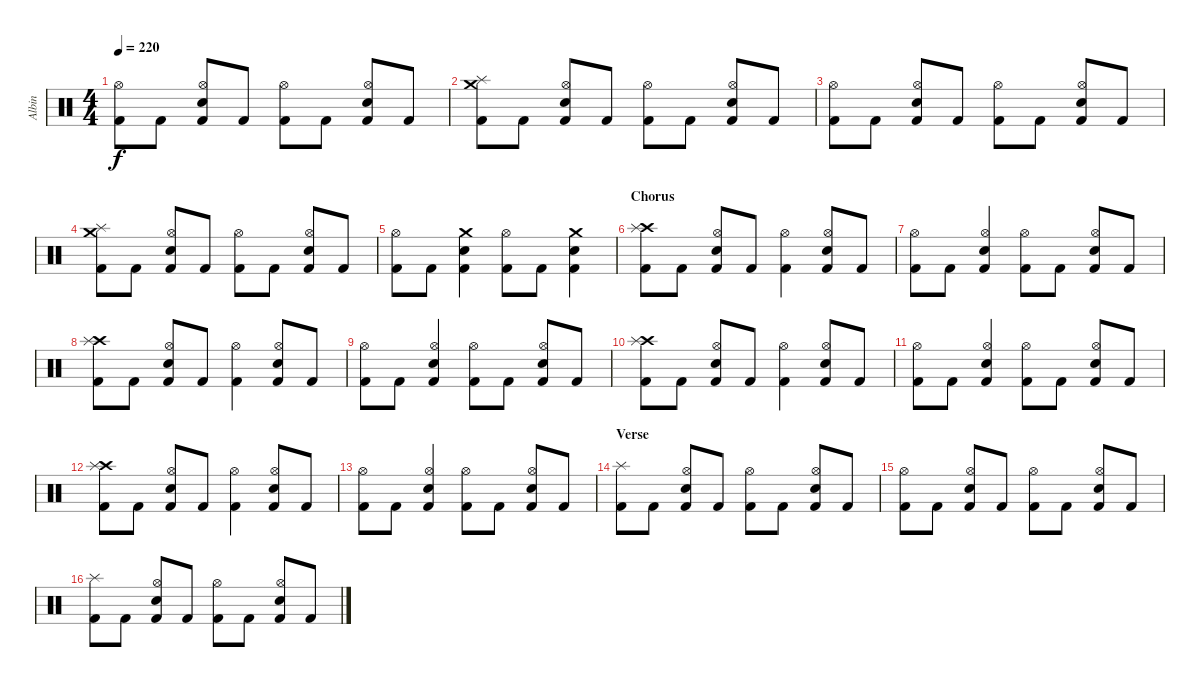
\track ("Albin" "Albin") {instrument percussion}
\staff {score}
\articulation defaults
\ts (4 4)
\tempo 220
\clef neutral
\ks c
("Kick (hit) 2" "Hi-Hat (open)").8{dy f} "Kick (hit) 2".8 ("Kick (hit) 2" "Electric Snare (hit)" "Hi-Hat (open)").8 "Kick (hit) 2".8 ("Kick (hit) 2" "Hi-Hat (open)").8 "Kick (hit) 2".8 ("Kick (hit) 2" "Electric Snare (hit)" "Hi-Hat (open)").8 "Kick (hit) 2".8 |
("Kick (hit) 2" "Splash (hit)" "Crash medium (hit)").8 "Kick (hit) 2".8 ("Kick (hit) 2" "Electric Snare (hit)" "Hi-Hat (open)").8 "Kick (hit) 2".8 ("Kick (hit) 2" "Hi-Hat (open)").8 "Kick (hit) 2".8 ("Kick (hit) 2" "Electric Snare (hit)" "Hi-Hat (open)").8 "Kick (hit) 2".8 |
("Kick (hit) 2" "Hi-Hat (open)").8 "Kick (hit) 2".8 ("Kick (hit) 2" "Electric Snare (hit)" "Hi-Hat (open)").8 "Kick (hit) 2".8 ("Kick (hit) 2" "Hi-Hat (open)").8 "Kick (hit) 2".8 ("Kick (hit) 2" "Electric Snare (hit)" "Hi-Hat (open)").8 "Kick (hit) 2".8 |
("Kick (hit) 2" "Splash (hit)" "Crash medium (hit)").8 "Kick (hit) 2".8 ("Kick (hit) 2" "Electric Snare (hit)" "Hi-Hat (open)").8 "Kick (hit) 2".8 ("Kick (hit) 2" "Hi-Hat (open)").8 "Kick (hit) 2".8 ("Kick (hit) 2" "Electric Snare (hit)" "Hi-Hat (open)").8 "Kick (hit) 2".8 |
("Kick (hit) 2" "Hi-Hat (open)").8 "Kick (hit) 2".8 ("Kick (hit) 2" "Electric Snare (hit)" "Crash medium (hit)").4 ("Kick (hit) 2" "Hi-Hat (open)").8 "Kick (hit) 2".8 ("Kick (hit) 2" "Electric Snare (hit)" "Crash medium (hit)").4 |
\section ("" "Chorus")
("Kick (hit) 2" "Crash high (hit)" "Splash (hit)").8 "Kick (hit) 2".8 ("Kick (hit) 2" "Electric Snare (hit)" "Hi-Hat (open)").8 "Kick (hit) 2".8 ("Kick (hit) 2" "Hi-Hat (open)").4 ("Kick (hit) 2" "Electric Snare (hit)" "Hi-Hat (open)").8 "Kick (hit) 2".8 |
("Kick (hit) 2" "Hi-Hat (open)").8 "Kick (hit) 2".8 ("Kick (hit) 2" "Electric Snare (hit)" "Hi-Hat (open)").4 ("Kick (hit) 2" "Hi-Hat (open)").8 "Kick (hit) 2".8 ("Kick (hit) 2" "Electric Snare (hit)" "Hi-Hat (open)").8 "Kick (hit) 2".8 |
("Kick (hit) 2" "Crash high (hit)" "Splash (hit)").8 "Kick (hit) 2".8 ("Kick (hit) 2" "Electric Snare (hit)" "Hi-Hat (open)").8 "Kick (hit) 2".8 ("Kick (hit) 2" "Hi-Hat (open)").4 ("Kick (hit) 2" "Electric Snare (hit)" "Hi-Hat (open)").8 "Kick (hit) 2".8 |
("Kick (hit) 2" "Hi-Hat (open)").8 "Kick (hit) 2".8 ("Kick (hit) 2" "Electric Snare (hit)" "Hi-Hat (open)").4 ("Kick (hit) 2" "Hi-Hat (open)").8 "Kick (hit) 2".8 ("Kick (hit) 2" "Electric Snare (hit)" "Hi-Hat (open)").8 "Kick (hit) 2".8 |
("Kick (hit) 2" "Crash high (hit)" "Splash (hit)").8 "Kick (hit) 2".8 ("Kick (hit) 2" "Electric Snare (hit)" "Hi-Hat (open)").8 "Kick (hit) 2".8 ("Kick (hit) 2" "Hi-Hat (open)").4 ("Kick (hit) 2" "Electric Snare (hit)" "Hi-Hat (open)").8 "Kick (hit) 2".8 |
("Kick (hit) 2" "Hi-Hat (open)").8 "Kick (hit) 2".8 ("Kick (hit) 2" "Electric Snare (hit)" "Hi-Hat (open)").4 ("Kick (hit) 2" "Hi-Hat (open)").8 "Kick (hit) 2".8 ("Kick (hit) 2" "Electric Snare (hit)" "Hi-Hat (open)").8 "Kick (hit) 2".8 |
("Kick (hit) 2" "Crash high (hit)" "Splash (hit)").8 "Kick (hit) 2".8 ("Kick (hit) 2" "Electric Snare (hit)" "Hi-Hat (open)").8 "Kick (hit) 2".8 ("Kick (hit) 2" "Hi-Hat (open)").4 ("Kick (hit) 2" "Electric Snare (hit)" "Hi-Hat (open)").8 "Kick (hit) 2".8 |
("Kick (hit) 2" "Hi-Hat (open)").8 "Kick (hit) 2".8 ("Kick (hit) 2" "Electric Snare (hit)" "Hi-Hat (open)").4 ("Kick (hit) 2" "Hi-Hat (open)").8 "Kick (hit) 2".8 ("Kick (hit) 2" "Electric Snare (hit)" "Hi-Hat (open)").8 "Kick (hit) 2".8 |
\section ("" "Verse")
("Kick (hit) 2" "Splash (hit)").8 "Kick (hit) 2".8 ("Kick (hit) 2" "Electric Snare (hit)" "Hi-Hat (open)").8 "Kick (hit) 2".8 ("Kick (hit) 2" "Hi-Hat (open)").8 "Kick (hit) 2".8 ("Kick (hit) 2" "Electric Snare (hit)" "Hi-Hat (open)").8 "Kick (hit) 2".8 |
("Kick (hit) 2" "Hi-Hat (open)").8 "Kick (hit) 2".8 ("Kick (hit) 2" "Electric Snare (hit)" "Hi-Hat (open)").8 "Kick (hit) 2".8 ("Kick (hit) 2" "Hi-Hat (open)").8 "Kick (hit) 2".8 ("Kick (hit) 2" "Electric Snare (hit)" "Hi-Hat (open)").8 "Kick (hit) 2".8 |
("Kick (hit) 2" "Splash (hit)").8 "Kick (hit) 2".8 ("Kick (hit) 2" "Electric Snare (hit)" "Hi-Hat (open)").8 "Kick (hit) 2".8 ("Kick (hit) 2" "Hi-Hat (open)").8 "Kick (hit) 2".8 ("Kick (hit) 2" "Electric Snare (hit)" "Hi-Hat (open)").8 "Kick (hit) 2".8
